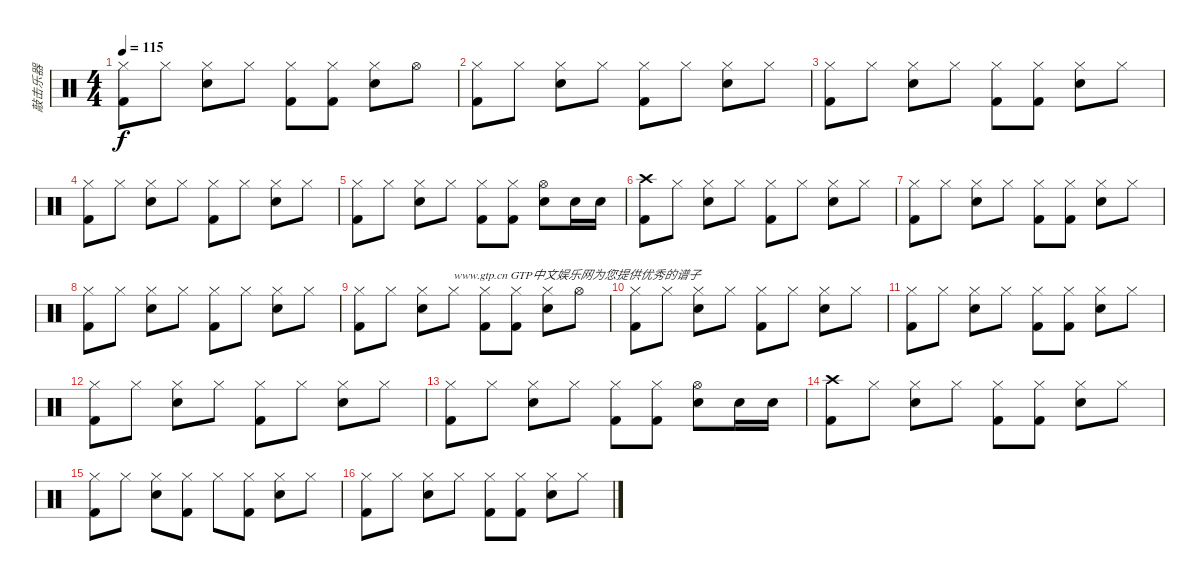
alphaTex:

\track ("敲击乐器" "敲击乐器") {instrument percussion}
\staff {score}
\articulation defaults
\ts (4 4)
\tempo 115
\clef neutral
\ks c
("Hi-Hat (closed)" "Kick (hit) 2").8{dy f} "Hi-Hat (closed)".8 ("Hi-Hat (closed)" "Electric Snare (hit)").8 "Hi-Hat (closed)".8 ("Hi-Hat (closed)" "Kick (hit) 2").8 ("Hi-Hat (closed)" "Kick (hit) 2").8 ("Hi-Hat (closed)" "Electric Snare (hit)").8 "Hi-Hat (open)".8 |
("Hi-Hat (closed)" "Kick (hit) 2").8 "Hi-Hat (closed)".8 ("Hi-Hat (closed)" "Electric Snare (hit)").8 "Hi-Hat (closed)".8 ("Hi-Hat (closed)" "Kick (hit) 2").8 "Hi-Hat (closed)".8 ("Hi-Hat (closed)" "Electric Snare (hit)").8 "Hi-Hat (closed)".8 |
("Hi-Hat (closed)" "Kick (hit) 2").8 "Hi-Hat (closed)".8 ("Hi-Hat (closed)" "Electric Snare (hit)").8 "Hi-Hat (closed)".8 ("Hi-Hat (closed)" "Kick (hit) 2").8 ("Hi-Hat (closed)" "Kick (hit) 2").8 ("Hi-Hat (closed)" "Electric Snare (hit)").8 "Hi-Hat (closed)".8 |
("Hi-Hat (closed)" "Kick (hit) 2").8 "Hi-Hat (closed)".8 ("Hi-Hat (closed)" "Electric Snare (hit)").8 "Hi-Hat (closed)".8 ("Hi-Hat (closed)" "Kick (hit) 2").8 "Hi-Hat (closed)".8 ("Hi-Hat (closed)" "Electric Snare (hit)").8 "Hi-Hat (closed)".8 |
("Hi-Hat (closed)" "Kick (hit) 2").8 "Hi-Hat (closed)".8 ("Hi-Hat (closed)" "Electric Snare (hit)").8 "Hi-Hat (closed)".8 ("Hi-Hat (closed)" "Kick (hit) 2").8 ("Hi-Hat (closed)" "Kick (hit) 2").8 ("Hi-Hat (open)" "Electric Snare (hit)").8 "Electric Snare (hit)".16 "Electric Snare (hit)".16 |
("Crash high (hit)" "Kick (hit) 2").8 "Hi-Hat (closed)".8 ("Hi-Hat (closed)" "Electric Snare (hit)").8 "Hi-Hat (closed)".8 ("Hi-Hat (closed)" "Kick (hit) 2").8 "Hi-Hat (closed)".8 ("Hi-Hat (closed)" "Electric Snare (hit)").8 "Hi-Hat (closed)".8 |
("Hi-Hat (closed)" "Kick (hit) 2").8 "Hi-Hat (closed)".8 ("Hi-Hat (closed)" "Electric Snare (hit)").8 "Hi-Hat (closed)".8 ("Hi-Hat (closed)" "Kick (hit) 2").8 ("Hi-Hat (closed)" "Kick (hit) 2").8 ("Hi-Hat (closed)" "Electric Snare (hit)").8 "Hi-Hat (closed)".8 |
("Hi-Hat (closed)" "Kick (hit) 2").8 "Hi-Hat (closed)".8 ("Hi-Hat (closed)" "Electric Snare (hit)").8 "Hi-Hat (closed)".8 ("Hi-Hat (closed)" "Kick (hit) 2").8 "Hi-Hat (closed)".8 ("Hi-Hat (closed)" "Electric Snare (hit)").8 "Hi-Hat (closed)".8 |
("Hi-Hat (closed)" "Kick (hit) 2").8 "Hi-Hat (closed)".8 ("Hi-Hat (closed)" "Electric Snare (hit)").8 "Hi-Hat (closed)".8{txt "www.gtp.cn GTP中文娱乐网为您提供优秀的谱子"} ("Hi-Hat (closed)" "Kick (hit) 2").8 ("Hi-Hat (closed)" "Kick (hit) 2").8 ("Hi-Hat (closed)" "Electric Snare (hit)").8 "Hi-Hat (open)".8 |
("Hi-Hat (closed)" "Kick (hit) 2").8 "Hi-Hat (closed)".8 ("Hi-Hat (closed)" "Electric Snare (hit)").8 "Hi-Hat (closed)".8 ("Hi-Hat (closed)" "Kick (hit) 2").8 "Hi-Hat (closed)".8 ("Hi-Hat (closed)" "Electric Snare (hit)").8 "Hi-Hat (closed)".8 |
("Hi-Hat (closed)" "Kick (hit) 2").8 "Hi-Hat (closed)".8 ("Hi-Hat (closed)" "Electric Snare (hit)").8 "Hi-Hat (closed)".8 ("Hi-Hat (closed)" "Kick (hit) 2").8 ("Hi-Hat (closed)" "Kick (hit) 2").8 ("Hi-Hat (closed)" "Electric Snare (hit)").8 "Hi-Hat (closed)".8 |
("Hi-Hat (closed)" "Kick (hit) 2").8 "Hi-Hat (closed)".8 ("Hi-Hat (closed)" "Electric Snare (hit)").8 "Hi-Hat (closed)".8 ("Hi-Hat (closed)" "Kick (hit) 2").8 "Hi-Hat (closed)".8 ("Hi-Hat (closed)" "Electric Snare (hit)").8 "Hi-Hat (closed)".8 |
("Hi-Hat (closed)" "Kick (hit) 2").8 "Hi-Hat (closed)".8 ("Hi-Hat (closed)" "Electric Snare (hit)").8 "Hi-Hat (closed)".8 ("Hi-Hat (closed)" "Kick (hit) 2").8 ("Hi-Hat (closed)" "Kick (hit) 2").8 ("Hi-Hat (open)" "Electric Snare (hit)").8 "Electric Snare (hit)".16 "Electric Snare (hit)".16 |
("Crash high (hit)" "Kick (hit) 2").8 "Hi-Hat (closed)".8 ("Hi-Hat (closed)" "Electric Snare (hit)").8 "Hi-Hat (closed)".8 ("Hi-Hat (closed)" "Kick (hit) 2").8 ("Hi-Hat (closed)" "Kick (hit) 2").8 ("Hi-Hat (closed)" "Electric Snare (hit)").8 "Hi-Hat (closed)".8 |
("Hi-Hat (closed)" "Kick (hit) 2").8 "Hi-Hat (closed)".8 ("Electric Snare (hit)" "Hi-Hat (closed)").8 ("Kick (hit) 2" "Hi-Hat (closed)").8 "Hi-Hat (closed)".8 ("Kick (hit) 2" "Hi-Hat (closed)").8 ("Electric Snare (hit)" "Hi-Hat (closed)").8 "Hi-Hat (closed)".8 |
("Hi-Hat (closed)" "Kick (hit) 2").8 "Hi-Hat (closed)".8 ("Hi-Hat (closed)" "Electric Snare (hit)").8 "Hi-Hat (closed)".8 ("Hi-Hat (closed)" "Kick (hit) 2").8 ("Hi-Hat (closed)" "Kick (hit) 2").8 ("Hi-Hat (closed)" "Electric Snare (hit)").8 "Hi-Hat (closed)".8
